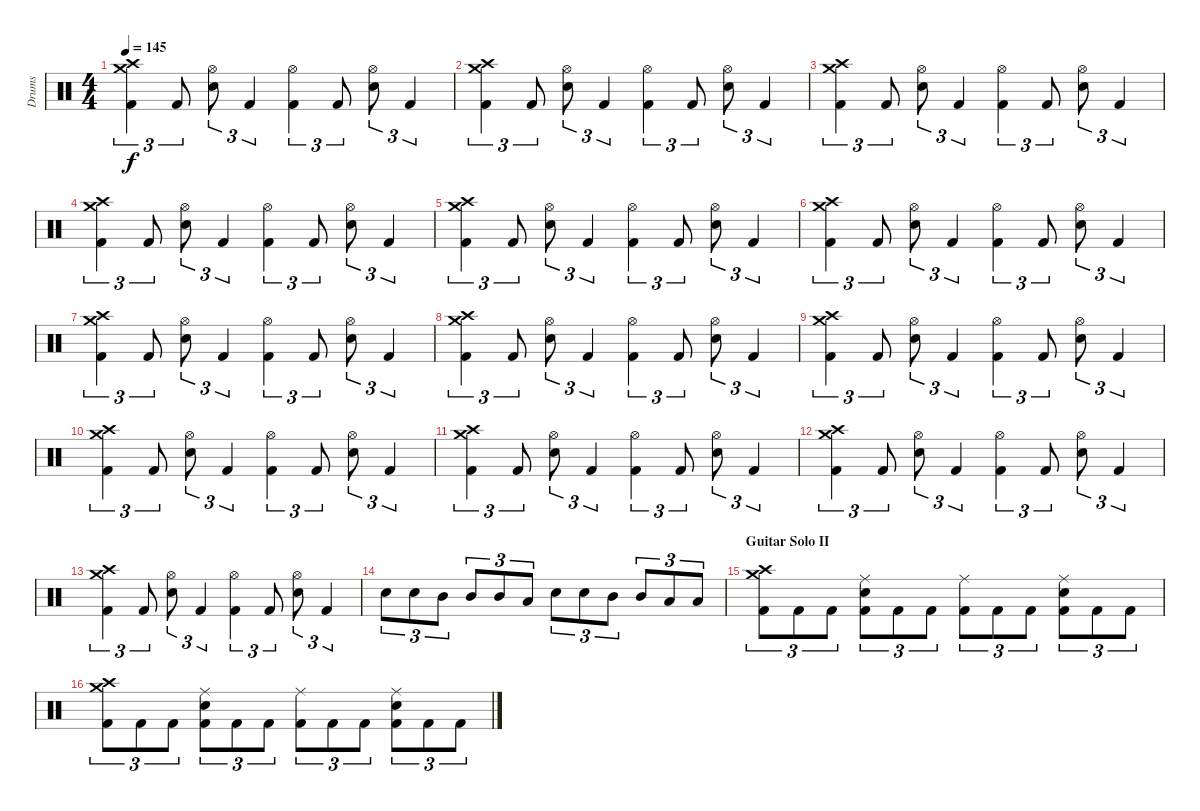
\track ("Drums" "Drums") {instrument percussion}
\staff {score}
\articulation defaults
\ts (4 4)
\tempo 145
\clef neutral
\ks c
("Crash medium (hit)" "Crash high (hit)" "Kick (hit) 2").4{tu (3 2) dy f} "Kick (hit) 2".8{tu (3 2)} ("Hi-Hat (open)" "Snare (hit) 2").8{tu (3 2)} "Kick (hit) 2".4{tu (3 2)} ("Hi-Hat (open)" "Kick (hit) 2").4{tu (3 2)} "Kick (hit) 2".8{tu (3 2)} ("Hi-Hat (open)" "Snare (hit) 2").8{tu (3 2)} "Kick (hit) 2".4{tu (3 2)} |
("Crash medium (hit)" "Crash high (hit)" "Kick (hit) 2").4{tu (3 2)} "Kick (hit) 2".8{tu (3 2)} ("Hi-Hat (open)" "Snare (hit) 2").8{tu (3 2)} "Kick (hit) 2".4{tu (3 2)} ("Hi-Hat (open)" "Kick (hit) 2").4{tu (3 2)} "Kick (hit) 2".8{tu (3 2)} ("Hi-Hat (open)" "Snare (hit) 2").8{tu (3 2)} "Kick (hit) 2".4{tu (3 2)} |
("Crash medium (hit)" "Crash high (hit)" "Kick (hit) 2").4{tu (3 2)} "Kick (hit) 2".8{tu (3 2)} ("Hi-Hat (open)" "Snare (hit) 2").8{tu (3 2)} "Kick (hit) 2".4{tu (3 2)} ("Hi-Hat (open)" "Kick (hit) 2").4{tu (3 2)} "Kick (hit) 2".8{tu (3 2)} ("Hi-Hat (open)" "Snare (hit) 2").8{tu (3 2)} "Kick (hit) 2".4{tu (3 2)} |
("Crash medium (hit)" "Crash high (hit)" "Kick (hit) 2").4{tu (3 2)} "Kick (hit) 2".8{tu (3 2)} ("Hi-Hat (open)" "Snare (hit) 2").8{tu (3 2)} "Kick (hit) 2".4{tu (3 2)} ("Hi-Hat (open)" "Kick (hit) 2").4{tu (3 2)} "Kick (hit) 2".8{tu (3 2)} ("Hi-Hat (open)" "Snare (hit) 2").8{tu (3 2)} "Kick (hit) 2".4{tu (3 2)} |
("Crash medium (hit)" "Crash high (hit)" "Kick (hit) 2").4{tu (3 2)} "Kick (hit) 2".8{tu (3 2)} ("Hi-Hat (open)" "Snare (hit) 2").8{tu (3 2)} "Kick (hit) 2".4{tu (3 2)} ("Hi-Hat (open)" "Kick (hit) 2").4{tu (3 2)} "Kick (hit) 2".8{tu (3 2)} ("Hi-Hat (open)" "Snare (hit) 2").8{tu (3 2)} "Kick (hit) 2".4{tu (3 2)} |
("Crash medium (hit)" "Crash high (hit)" "Kick (hit) 2").4{tu (3 2)} "Kick (hit) 2".8{tu (3 2)} ("Hi-Hat (open)" "Snare (hit) 2").8{tu (3 2)} "Kick (hit) 2".4{tu (3 2)} ("Hi-Hat (open)" "Kick (hit) 2").4{tu (3 2)} "Kick (hit) 2".8{tu (3 2)} ("Hi-Hat (open)" "Snare (hit) 2").8{tu (3 2)} "Kick (hit) 2".4{tu (3 2)} |
("Crash medium (hit)" "Crash high (hit)" "Kick (hit) 2").4{tu (3 2)} "Kick (hit) 2".8{tu (3 2)} ("Hi-Hat (open)" "Snare (hit) 2").8{tu (3 2)} "Kick (hit) 2".4{tu (3 2)} ("Hi-Hat (open)" "Kick (hit) 2").4{tu (3 2)} "Kick (hit) 2".8{tu (3 2)} ("Hi-Hat (open)" "Snare (hit) 2").8{tu (3 2)} "Kick (hit) 2".4{tu (3 2)} |
("Crash medium (hit)" "Crash high (hit)" "Kick (hit) 2").4{tu (3 2)} "Kick (hit) 2".8{tu (3 2)} ("Hi-Hat (open)" "Snare (hit) 2").8{tu (3 2)} "Kick (hit) 2".4{tu (3 2)} ("Hi-Hat (open)" "Kick (hit) 2").4{tu (3 2)} "Kick (hit) 2".8{tu (3 2)} ("Hi-Hat (open)" "Snare (hit) 2").8{tu (3 2)} "Kick (hit) 2".4{tu (3 2)} |
("Crash medium (hit)" "Crash high (hit)" "Kick (hit) 2").4{tu (3 2)} "Kick (hit) 2".8{tu (3 2)} ("Hi-Hat (open)" "Snare (hit) 2").8{tu (3 2)} "Kick (hit) 2".4{tu (3 2)} ("Hi-Hat (open)" "Kick (hit) 2").4{tu (3 2)} "Kick (hit) 2".8{tu (3 2)} ("Hi-Hat (open)" "Snare (hit) 2").8{tu (3 2)} "Kick (hit) 2".4{tu (3 2)} |
("Crash medium (hit)" "Crash high (hit)" "Kick (hit) 2").4{tu (3 2)} "Kick (hit) 2".8{tu (3 2)} ("Hi-Hat (open)" "Snare (hit) 2").8{tu (3 2)} "Kick (hit) 2".4{tu (3 2)} ("Hi-Hat (open)" "Kick (hit) 2").4{tu (3 2)} "Kick (hit) 2".8{tu (3 2)} ("Hi-Hat (open)" "Snare (hit) 2").8{tu (3 2)} "Kick (hit) 2".4{tu (3 2)} |
("Crash medium (hit)" "Crash high (hit)" "Kick (hit) 2").4{tu (3 2)} "Kick (hit) 2".8{tu (3 2)} ("Hi-Hat (open)" "Snare (hit) 2").8{tu (3 2)} "Kick (hit) 2".4{tu (3 2)} ("Hi-Hat (open)" "Kick (hit) 2").4{tu (3 2)} "Kick (hit) 2".8{tu (3 2)} ("Hi-Hat (open)" "Snare (hit) 2").8{tu (3 2)} "Kick (hit) 2".4{tu (3 2)} |
("Crash medium (hit)" "Crash high (hit)" "Kick (hit) 2").4{tu (3 2)} "Kick (hit) 2".8{tu (3 2)} ("Hi-Hat (open)" "Snare (hit) 2").8{tu (3 2)} "Kick (hit) 2".4{tu (3 2)} ("Hi-Hat (open)" "Kick (hit) 2").4{tu (3 2)} "Kick (hit) 2".8{tu (3 2)} ("Hi-Hat (open)" "Snare (hit) 2").8{tu (3 2)} "Kick (hit) 2".4{tu (3 2)} |
("Crash medium (hit)" "Crash high (hit)" "Kick (hit) 2").4{tu (3 2)} "Kick (hit) 2".8{tu (3 2)} ("Hi-Hat (open)" "Snare (hit) 2").8{tu (3 2)} "Kick (hit) 2".4{tu (3 2)} ("Hi-Hat (open)" "Kick (hit) 2").4{tu (3 2)} "Kick (hit) 2".8{tu (3 2)} ("Hi-Hat (open)" "Snare (hit) 2").8{tu (3 2)} "Kick (hit) 2".4{tu (3 2)} |
"Snare (hit) 2".8{tu (3 2)} "Snare (hit) 2".8{tu (3 2)} "Mid Tom (hit)".8{tu (3 2)} "Mid Tom (hit)".8{tu (3 2)} "Mid Tom (hit)".8{tu (3 2)} "Low Tom (hit)".8{tu (3 2)} "Snare (hit) 2".8{tu (3 2)} "Snare (hit) 2".8{tu (3 2)} "Mid Tom (hit)".8{tu (3 2)} "Mid Tom (hit)".8{tu (3 2)} "Low Tom (hit)".8{tu (3 2)} "Low Tom (hit)".8{tu (3 2)} |
\section ("" "Guitar Solo II")
("Crash medium (hit)" "Crash high (hit)" "Kick (hit) 2").8{tu (3 2)} "Kick (hit) 2".8{tu (3 2)} "Kick (hit) 2".8{tu (3 2)} ("Ride (middle)" "Snare (hit) 2" "Kick (hit) 2").8{tu (3 2)} "Kick (hit) 2".8{tu (3 2)} "Kick (hit) 2".8{tu (3 2)} ("Ride (middle)" "Kick (hit) 2").8{tu (3 2)} "Kick (hit) 2".8{tu (3 2)} "Kick (hit) 2".8{tu (3 2)} ("Ride (middle)" "Snare (hit) 2" "Kick (hit) 2").8{tu (3 2)} "Kick (hit) 2".8{tu (3 2)} "Kick (hit) 2".8{tu (3 2)} |
("Crash medium (hit)" "Crash high (hit)" "Kick (hit) 2").8{tu (3 2)} "Kick (hit) 2".8{tu (3 2)} "Kick (hit) 2".8{tu (3 2)} ("Ride (middle)" "Snare (hit) 2" "Kick (hit) 2").8{tu (3 2)} "Kick (hit) 2".8{tu (3 2)} "Kick (hit) 2".8{tu (3 2)} ("Ride (middle)" "Kick (hit) 2").8{tu (3 2)} "Kick (hit) 2".8{tu (3 2)} "Kick (hit) 2".8{tu (3 2)} ("Ride (middle)" "Snare (hit) 2" "Kick (hit) 2").8{tu (3 2)} "Kick (hit) 2".8{tu (3 2)} "Kick (hit) 2".8{tu (3 2)}
